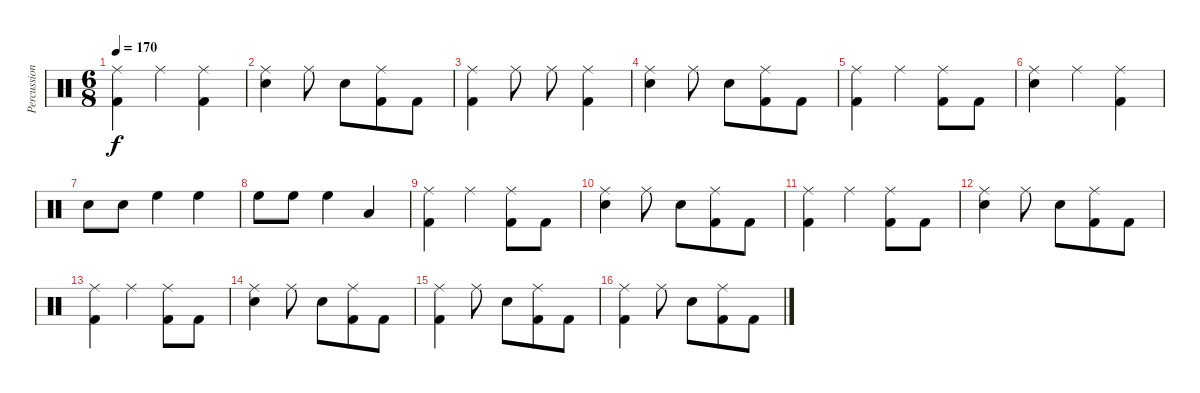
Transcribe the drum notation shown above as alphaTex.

\track ("Percussion" "Percussion") {instrument percussion}
\staff {score}
\articulation defaults
\ts (6 8)
\tempo 170
\clef neutral
\ks c
("Ride (middle)" "Kick (hit) 2").4{dy f} "Ride (middle)".4 ("Ride (middle)" "Kick (hit) 2").4 |
("Ride (middle)" "Snare (hit) 2").4 "Ride (middle)".8 "Snare (hit) 2".8 ("Ride (middle)" "Kick (hit) 2").8 "Kick (hit) 2".8 |
("Ride (middle)" "Kick (hit) 2").4 "Ride (middle)".8 "Ride (middle)".8 ("Ride (middle)" "Kick (hit) 2").4 |
("Ride (middle)" "Snare (hit) 2").4 "Ride (middle)".8 "Snare (hit) 2".8 ("Ride (middle)" "Kick (hit) 2").8 "Kick (hit) 2".8 |
("Ride (middle)" "Kick (hit) 2").4 "Ride (middle)".4 ("Ride (middle)" "Kick (hit) 2").8 "Kick (hit) 2".8 |
("Ride (middle)" "Snare (hit) 2").4 "Ride (middle)".4 ("Ride (middle)" "Kick (hit) 2").4 |
"Snare (hit) 2".8 "Snare (hit) 2".8 "High Floor Tom (hit)".4 "High Floor Tom (hit)".4 |
"High Floor Tom (hit)".8 "High Floor Tom (hit)".8 "High Floor Tom (hit)".4 "Low Tom (hit)".4 |
("Ride (middle)" "Kick (hit) 2").4 "Ride (middle)".4 ("Ride (middle)" "Kick (hit) 2").8 "Kick (hit) 2".8 |
("Ride (middle)" "Snare (hit) 2").4 "Ride (middle)".8 "Snare (hit) 2".8 ("Ride (middle)" "Kick (hit) 2").8 "Kick (hit) 2".8 |
("Ride (middle)" "Kick (hit) 2").4 "Ride (middle)".4 ("Ride (middle)" "Kick (hit) 2").8 "Kick (hit) 2".8 |
("Ride (middle)" "Snare (hit) 2").4 "Ride (middle)".8 "Snare (hit) 2".8 ("Ride (middle)" "Kick (hit) 2").8 "Kick (hit) 2".8 |
("Ride (middle)" "Kick (hit) 2").4 "Ride (middle)".4 ("Ride (middle)" "Kick (hit) 2").8 "Kick (hit) 2".8 |
("Ride (middle)" "Snare (hit) 2").4 "Ride (middle)".8 "Snare (hit) 2".8 ("Ride (middle)" "Kick (hit) 2").8 "Kick (hit) 2".8 |
("Ride (middle)" "Kick (hit) 2").4 "Ride (middle)".8 "Snare (hit) 2".8 ("Ride (middle)" "Kick (hit) 2").8 "Kick (hit) 2".8 |
("Ride (middle)" "Kick (hit) 2").4 "Ride (middle)".8 "Snare (hit) 2".8 ("Ride (middle)" "Kick (hit) 2").8 "Kick (hit) 2".8
